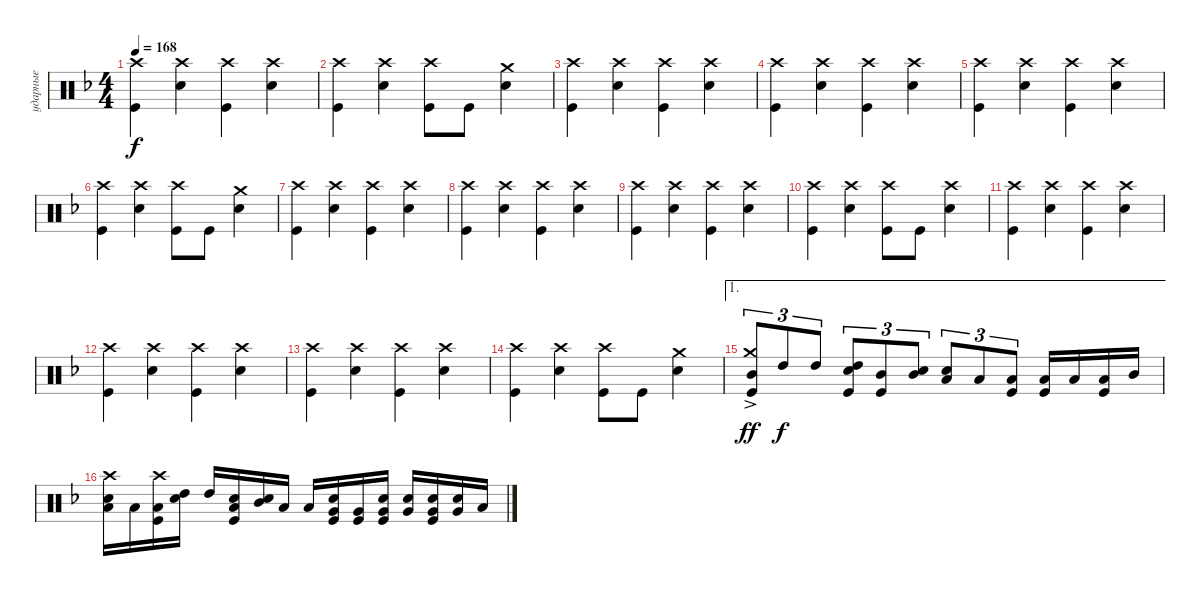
\track ("ударные" "ударные") {instrument percussion}
\staff {score}
\articulation defaults
\ts (4 4)
\tempo 168
\clef neutral
\ks dminor
("Kick (hit)" "Crash high (hit)").4{dy f} ("Snare (hit) 2" "Crash high (hit)").4 ("Kick (hit)" "Crash high (hit)").4 ("Snare (hit) 2" "Crash high (hit)").4 |
("Kick (hit)" "Crash high (hit)").4 ("Snare (hit) 2" "Crash high (hit)").4 ("Kick (hit)" "Crash high (hit)").8 "Kick (hit)".8 ("Snare (hit) 2" "Crash medium (hit)").4 |
("Kick (hit)" "Crash high (hit)").4 ("Snare (hit) 2" "Crash high (hit)").4 ("Kick (hit)" "Crash high (hit)").4 ("Snare (hit) 2" "Crash high (hit)").4 |
("Kick (hit)" "Crash high (hit)").4 ("Snare (hit) 2" "Crash high (hit)").4 ("Kick (hit)" "Crash high (hit)").4 ("Snare (hit) 2" "Crash high (hit)").4 |
("Kick (hit)" "Crash high (hit)").4 ("Snare (hit) 2" "Crash high (hit)").4 ("Kick (hit)" "Crash high (hit)").4 ("Snare (hit) 2" "Crash high (hit)").4 |
("Kick (hit)" "Crash high (hit)").4 ("Snare (hit) 2" "Crash high (hit)").4 ("Kick (hit)" "Crash high (hit)").8 "Kick (hit)".8 ("Snare (hit) 2" "Crash medium (hit)").4 |
("Kick (hit)" "Crash high (hit)").4 ("Snare (hit) 2" "Crash high (hit)").4 ("Kick (hit)" "Crash high (hit)").4 ("Snare (hit) 2" "Crash high (hit)").4 |
("Kick (hit)" "Crash high (hit)").4 ("Snare (hit) 2" "Crash high (hit)").4 ("Kick (hit)" "Crash high (hit)").4 ("Snare (hit) 2" "Crash high (hit)").4 |
("Kick (hit)" "Crash high (hit)").4 ("Snare (hit) 2" "Crash high (hit)").4 ("Kick (hit)" "Crash high (hit)").4 ("Snare (hit) 2" "Crash high (hit)").4 |
("Kick (hit)" "Crash high (hit)").4 ("Snare (hit) 2" "Crash high (hit)").4 ("Kick (hit)" "Crash high (hit)").8 "Kick (hit)".8 ("Snare (hit) 2" "Crash high (hit)").4 |
("Kick (hit)" "Crash high (hit)").4 ("Snare (hit) 2" "Crash high (hit)").4 ("Kick (hit)" "Crash high (hit)").4 ("Snare (hit) 2" "Crash high (hit)").4 |
("Kick (hit)" "Crash high (hit)").4 ("Snare (hit) 2" "Crash high (hit)").4 ("Kick (hit)" "Crash high (hit)").4 ("Snare (hit) 2" "Crash high (hit)").4 |
("Kick (hit)" "Crash high (hit)").4 ("Snare (hit) 2" "Crash high (hit)").4 ("Kick (hit)" "Crash high (hit)").4 ("Snare (hit) 2" "Crash high (hit)").4 |
("Kick (hit)" "Crash high (hit)").4 ("Snare (hit) 2" "Crash high (hit)").4 ("Kick (hit)" "Crash high (hit)").8 "Kick (hit)".8 ("Snare (hit) 2" "Crash medium (hit)").4 |
\ae 1
("Crash medium (hit)"{ac} "Mid Tom (hit)" "Kick (hit)").8{tu (3 2) dy ff} "High Tom (hit)".8{tu (3 2) dy f} "High Tom (hit)".8{tu (3 2)} ("High Tom (hit)" "Snare (hit) 2" "Kick (hit)").8{tu (3 2)} ("Kick (hit)" "Mid Tom (hit)").8{tu (3 2)} ("Mid Tom (hit)" "Snare (hit) 2").8{tu (3 2)} ("Low Tom (hit)" "Snare (hit) 2").8{tu (3 2)} "Low Tom (hit)".8{tu (3 2)} ("Low Tom (hit)" "Kick (hit)").8{tu (3 2)} ("Kick (hit)" "Low Tom (hit)").16 "Low Tom (hit)".16 ("Low Tom (hit)" "Kick (hit)").16 "Mid Tom (hit)".16 |
("Low Tom (hit)" "Snare (hit) 2" "Crash high (hit)").16 "Low Tom (hit)".16 ("Low Tom (hit)" "Kick (hit)" "Crash high (hit)").16 ("High Tom (hit)" "Snare (hit) 2").16 "High Tom (hit)".16 ("Low Tom (hit)" "Snare (hit) 2" "Kick (hit)").16 ("Mid Tom (hit)" "Snare (hit) 2").16 "Low Tom (hit)".16 "Low Tom (hit)".16 ("Very Low Tom (hit)" "Snare (hit) 2" "Kick (hit)").16 ("Very Low Tom (hit)" "Kick (hit)").16 ("Very Low Tom (hit)" "Snare (hit) 2" "Kick (hit)").16 ("Very Low Tom (hit)" "Snare (hit) 2").16 ("Very Low Tom (hit)" "Snare (hit) 2" "Kick (hit)").16 ("Very Low Tom (hit)" "Snare (hit) 2").16 "Low Tom (hit)".16
